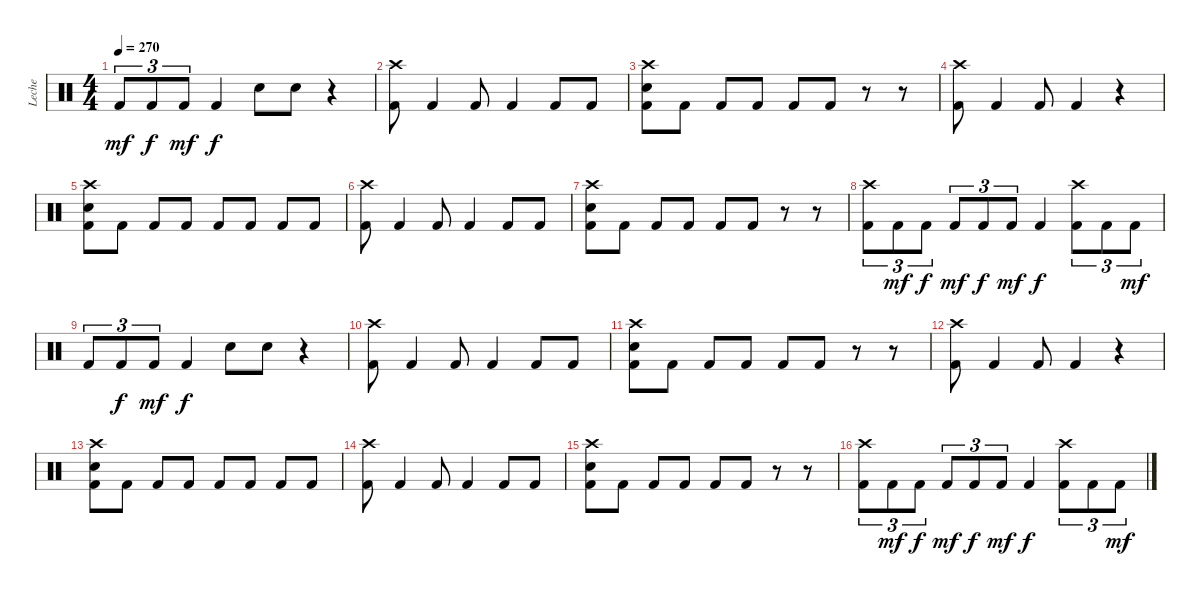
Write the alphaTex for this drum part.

\track ("Leche" "Leche") {instrument percussion}
\staff {score}
\articulation defaults
\ts (4 4)
\tempo 270
\clef neutral
\ks c "Kick (hit) 2".8{tu (3 2) dy mf} "Kick (hit) 2".8{tu (3 2) dy f} "Kick (hit) 2".8{tu (3 2) dy mf} "Kick (hit) 2".4{dy f} "Electric Snare (hit)".8 "Electric Snare (hit)".8
r.4 |
("Crash high (hit)" "Kick (hit) 2").8 "Kick (hit) 2".4 "Kick (hit) 2".8 "Kick (hit) 2".4 "Kick (hit) 2".8 "Kick (hit) 2".8 |
("Crash high (hit)" "Electric Snare (hit)" "Kick (hit) 2").8 "Kick (hit) 2".8 "Kick (hit) 2".8 "Kick (hit) 2".8 "Kick (hit) 2".8 "Kick (hit) 2".8 r.8 r.8 |
("Crash high (hit)" "Kick (hit) 2").8{volume 8} "Kick (hit) 2".4 "Kick (hit) 2".8 "Kick (hit) 2".4 r.4 |
("Crash high (hit)" "Electric Snare (hit)" "Kick (hit) 2").8 "Kick (hit) 2".8 "Kick (hit) 2".8 "Kick (hit) 2".8 "Kick (hit) 2".8 "Kick (hit) 2".8 "Kick (hit) 2".8 "Kick (hit) 2".8 |
("Crash high (hit)" "Kick (hit) 2").8 "Kick (hit) 2".4 "Kick (hit) 2".8 "Kick (hit) 2".4 "Kick (hit) 2".8 "Kick (hit) 2".8 |
("Crash high (hit)" "Electric Snare (hit)" "Kick (hit) 2").8 "Kick (hit) 2".8 "Kick (hit) 2".8 "Kick (hit) 2".8 "Kick (hit) 2".8 "Kick (hit) 2".8 r.8 r.8 |
("Crash high (hit)" "Kick (hit) 2").8{tu (3 2)} "Kick (hit) 2".8{tu (3 2) dy mf} "Kick (hit) 2".8{tu (3 2) dy f} "Kick (hit) 2".8{tu (3 2) dy mf} "Kick (hit) 2".8{tu (3 2) dy f} "Kick (hit) 2".8{tu (3 2) dy mf} "Kick (hit) 2".4{dy f} ("Crash high (hit)" "Kick (hit) 2").8{tu (3 2)} "Kick (hit) 2".8{tu (3 2)} "Kick (hit) 2".8{tu (3 2) dy mf} |
"Kick (hit) 2".8{tu (3 2)} "Kick (hit) 2".8{tu (3 2) dy f} "Kick (hit) 2".8{tu (3 2) dy mf} "Kick (hit) 2".4{dy f} "Electric Snare (hit)".8 "Electric Snare (hit)".8 r.4 |
("Crash high (hit)" "Kick (hit) 2").8 "Kick (hit) 2".4 "Kick (hit) 2".8 "Kick (hit) 2".4 "Kick (hit) 2".8 "Kick (hit) 2".8 |
("Crash high (hit)" "Electric Snare (hit)" "Kick (hit) 2").8 "Kick (hit) 2".8 "Kick (hit) 2".8 "Kick (hit) 2".8 "Kick (hit) 2".8 "Kick (hit) 2".8 r.8 r.8 |
("Crash high (hit)" "Kick (hit) 2").8{volume 4} "Kick (hit) 2".4 "Kick (hit) 2".8 "Kick (hit) 2".4 r.4 |
("Crash high (hit)" "Electric Snare (hit)" "Kick (hit) 2").8 "Kick (hit) 2".8 "Kick (hit) 2".8 "Kick (hit) 2".8 "Kick (hit) 2".8 "Kick (hit) 2".8 "Kick (hit) 2".8 "Kick (hit) 2".8 |
("Crash high (hit)" "Kick (hit) 2").8 "Kick (hit) 2".4 "Kick (hit) 2".8 "Kick (hit) 2".4 "Kick (hit) 2".8 "Kick (hit) 2".8 |
("Crash high (hit)" "Electric Snare (hit)" "Kick (hit) 2").8 "Kick (hit) 2".8 "Kick (hit) 2".8 "Kick (hit) 2".8 "Kick (hit) 2".8 "Kick (hit) 2".8 r.8 r.8 |
("Crash high (hit)" "Kick (hit) 2").8{tu (3 2)} "Kick (hit) 2".8{tu (3 2) dy mf} "Kick (hit) 2".8{tu (3 2) dy f} "Kick (hit) 2".8{tu (3 2) dy mf} "Kick (hit) 2".8{tu (3 2) dy f} "Kick (hit) 2".8{tu (3 2) dy mf} "Kick (hit) 2".4{dy f} ("Crash high (hit)" "Kick (hit) 2").8{tu (3 2)} "Kick (hit) 2".8{tu (3 2)} "Kick (hit) 2".8{tu (3 2) dy mf}
